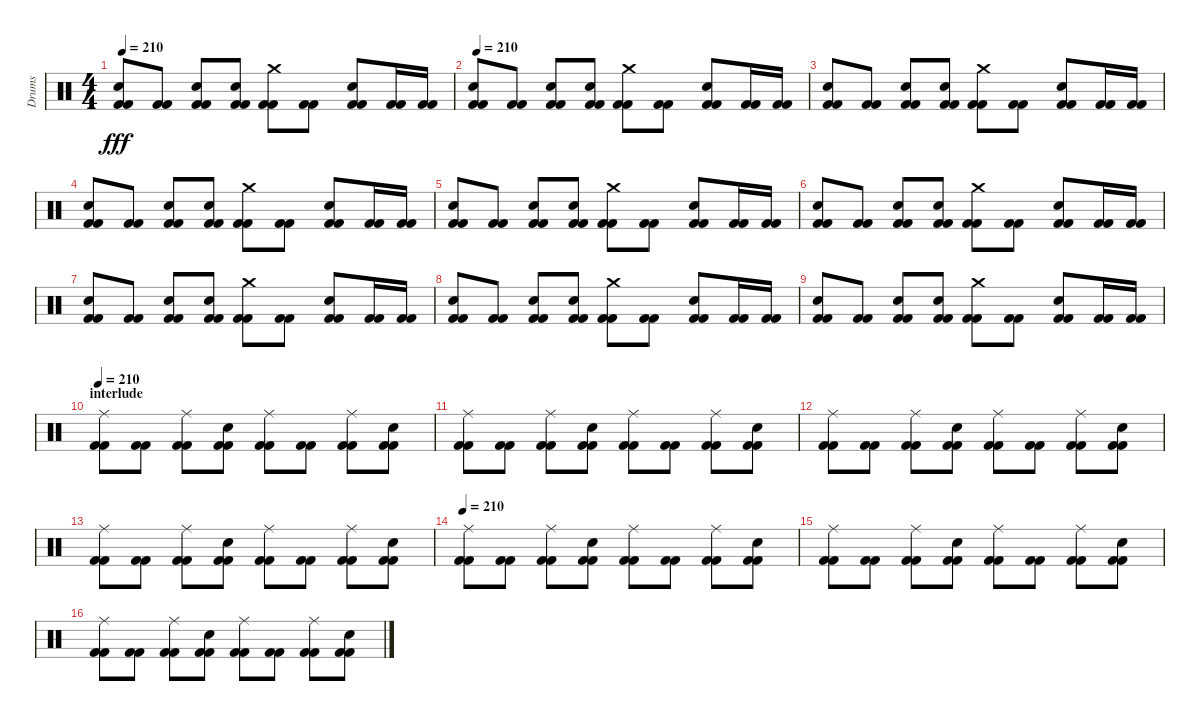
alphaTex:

\track ("Drums" "Drums") {instrument percussion}
\staff {score}
\articulation defaults
\ts (4 4)
\tempo 210
\clef neutral
\ks c
("Electric Snare (hit)" "Kick (hit) 2" "Kick (hit) 2").8{dy fff} ("Kick (hit) 2" "Kick (hit) 2").8 ("Electric Snare (hit)" "Kick (hit) 2" "Kick (hit) 2").8 ("Electric Snare (hit)" "Kick (hit) 2" "Kick (hit) 2").8 ("Crash medium (hit)" "Kick (hit) 2" "Kick (hit) 2").8 ("Kick (hit) 2" "Kick (hit) 2").8 ("Electric Snare (hit)" "Kick (hit) 2" "Kick (hit) 2").8 ("Kick (hit) 2" "Kick (hit) 2").16 ("Kick (hit) 2" "Kick (hit) 2").16 |
\tempo 210
("Electric Snare (hit)" "Kick (hit) 2" "Kick (hit) 2").8 ("Kick (hit) 2" "Kick (hit) 2").8 ("Electric Snare (hit)" "Kick (hit) 2" "Kick (hit) 2").8 ("Electric Snare (hit)" "Kick (hit) 2" "Kick (hit) 2").8 ("Crash medium (hit)" "Kick (hit) 2" "Kick (hit) 2").8 ("Kick (hit) 2" "Kick (hit) 2").8 ("Electric Snare (hit)" "Kick (hit) 2" "Kick (hit) 2").8 ("Kick (hit) 2" "Kick (hit) 2").16 ("Kick (hit) 2" "Kick (hit) 2").16 |
("Electric Snare (hit)" "Kick (hit) 2" "Kick (hit) 2").8 ("Kick (hit) 2" "Kick (hit) 2").8 ("Electric Snare (hit)" "Kick (hit) 2" "Kick (hit) 2").8 ("Electric Snare (hit)" "Kick (hit) 2" "Kick (hit) 2").8 ("Crash medium (hit)" "Kick (hit) 2" "Kick (hit) 2").8 ("Kick (hit) 2" "Kick (hit) 2").8 ("Electric Snare (hit)" "Kick (hit) 2" "Kick (hit) 2").8 ("Kick (hit) 2" "Kick (hit) 2").16 ("Kick (hit) 2" "Kick (hit) 2").16 |
("Electric Snare (hit)" "Kick (hit) 2" "Kick (hit) 2").8 ("Kick (hit) 2" "Kick (hit) 2").8 ("Electric Snare (hit)" "Kick (hit) 2" "Kick (hit) 2").8 ("Electric Snare (hit)" "Kick (hit) 2" "Kick (hit) 2").8 ("Crash medium (hit)" "Kick (hit) 2" "Kick (hit) 2").8 ("Kick (hit) 2" "Kick (hit) 2").8 ("Electric Snare (hit)" "Kick (hit) 2" "Kick (hit) 2").8 ("Kick (hit) 2" "Kick (hit) 2").16 ("Kick (hit) 2" "Kick (hit) 2").16 |
("Electric Snare (hit)" "Kick (hit) 2" "Kick (hit) 2").8 ("Kick (hit) 2" "Kick (hit) 2").8 ("Electric Snare (hit)" "Kick (hit) 2" "Kick (hit) 2").8 ("Electric Snare (hit)" "Kick (hit) 2" "Kick (hit) 2").8 ("Crash medium (hit)" "Kick (hit) 2" "Kick (hit) 2").8 ("Kick (hit) 2" "Kick (hit) 2").8 ("Electric Snare (hit)" "Kick (hit) 2" "Kick (hit) 2").8 ("Kick (hit) 2" "Kick (hit) 2").16 ("Kick (hit) 2" "Kick (hit) 2").16 |
("Electric Snare (hit)" "Kick (hit) 2" "Kick (hit) 2").8 ("Kick (hit) 2" "Kick (hit) 2").8 ("Electric Snare (hit)" "Kick (hit) 2" "Kick (hit) 2").8 ("Electric Snare (hit)" "Kick (hit) 2" "Kick (hit) 2").8 ("Crash medium (hit)" "Kick (hit) 2" "Kick (hit) 2").8 ("Kick (hit) 2" "Kick (hit) 2").8 ("Electric Snare (hit)" "Kick (hit) 2" "Kick (hit) 2").8 ("Kick (hit) 2" "Kick (hit) 2").16 ("Kick (hit) 2" "Kick (hit) 2").16 |
("Electric Snare (hit)" "Kick (hit) 2" "Kick (hit) 2").8 ("Kick (hit) 2" "Kick (hit) 2").8 ("Electric Snare (hit)" "Kick (hit) 2" "Kick (hit) 2").8 ("Electric Snare (hit)" "Kick (hit) 2" "Kick (hit) 2").8 ("Crash medium (hit)" "Kick (hit) 2" "Kick (hit) 2").8 ("Kick (hit) 2" "Kick (hit) 2").8 ("Electric Snare (hit)" "Kick (hit) 2" "Kick (hit) 2").8 ("Kick (hit) 2" "Kick (hit) 2").16 ("Kick (hit) 2" "Kick (hit) 2").16 |
("Electric Snare (hit)" "Kick (hit) 2" "Kick (hit) 2").8 ("Kick (hit) 2" "Kick (hit) 2").8 ("Electric Snare (hit)" "Kick (hit) 2" "Kick (hit) 2").8 ("Electric Snare (hit)" "Kick (hit) 2" "Kick (hit) 2").8 ("Crash medium (hit)" "Kick (hit) 2" "Kick (hit) 2").8 ("Kick (hit) 2" "Kick (hit) 2").8 ("Electric Snare (hit)" "Kick (hit) 2" "Kick (hit) 2").8 ("Kick (hit) 2" "Kick (hit) 2").16 ("Kick (hit) 2" "Kick (hit) 2").16 |
("Electric Snare (hit)" "Kick (hit) 2" "Kick (hit) 2").8 ("Kick (hit) 2" "Kick (hit) 2").8 ("Electric Snare (hit)" "Kick (hit) 2" "Kick (hit) 2").8 ("Electric Snare (hit)" "Kick (hit) 2" "Kick (hit) 2").8 ("Crash medium (hit)" "Kick (hit) 2" "Kick (hit) 2").8 ("Kick (hit) 2" "Kick (hit) 2").8 ("Electric Snare (hit)" "Kick (hit) 2" "Kick (hit) 2").8 ("Kick (hit) 2" "Kick (hit) 2").16 ("Kick (hit) 2" "Kick (hit) 2").16 |
\section ("" "interlude")
\tempo 210
("Ride (middle)" "Kick (hit) 2" "Kick (hit) 2").8 ("Kick (hit) 2" "Kick (hit) 2").8 ("Ride (middle)" "Kick (hit) 2" "Kick (hit) 2").8 ("Electric Snare (hit)" "Kick (hit) 2" "Kick (hit) 2").8 ("Ride (middle)" "Kick (hit) 2" "Kick (hit) 2").8 ("Kick (hit) 2" "Kick (hit) 2").8 ("Ride (middle)" "Kick (hit) 2" "Kick (hit) 2").8 ("Electric Snare (hit)" "Kick (hit) 2" "Kick (hit) 2").8 |
("Ride (middle)" "Kick (hit) 2" "Kick (hit) 2").8 ("Kick (hit) 2" "Kick (hit) 2").8 ("Ride (middle)" "Kick (hit) 2" "Kick (hit) 2").8 ("Electric Snare (hit)" "Kick (hit) 2" "Kick (hit) 2").8 ("Ride (middle)" "Kick (hit) 2" "Kick (hit) 2").8 ("Kick (hit) 2" "Kick (hit) 2").8 ("Ride (middle)" "Kick (hit) 2" "Kick (hit) 2").8 ("Electric Snare (hit)" "Kick (hit) 2" "Kick (hit) 2").8 |
("Ride (middle)" "Kick (hit) 2" "Kick (hit) 2").8 ("Kick (hit) 2" "Kick (hit) 2").8 ("Ride (middle)" "Kick (hit) 2" "Kick (hit) 2").8 ("Electric Snare (hit)" "Kick (hit) 2" "Kick (hit) 2").8 ("Ride (middle)" "Kick (hit) 2" "Kick (hit) 2").8 ("Kick (hit) 2" "Kick (hit) 2").8 ("Ride (middle)" "Kick (hit) 2" "Kick (hit) 2").8 ("Electric Snare (hit)" "Kick (hit) 2" "Kick (hit) 2").8 |
("Ride (middle)" "Kick (hit) 2" "Kick (hit) 2").8 ("Kick (hit) 2" "Kick (hit) 2").8 ("Ride (middle)" "Kick (hit) 2" "Kick (hit) 2").8 ("Electric Snare (hit)" "Kick (hit) 2" "Kick (hit) 2").8 ("Ride (middle)" "Kick (hit) 2" "Kick (hit) 2").8 ("Kick (hit) 2" "Kick (hit) 2").8 ("Ride (middle)" "Kick (hit) 2" "Kick (hit) 2").8 ("Electric Snare (hit)" "Kick (hit) 2" "Kick (hit) 2").8 |
\tempo 210
("Ride (middle)" "Kick (hit) 2" "Kick (hit) 2").8 ("Kick (hit) 2" "Kick (hit) 2").8 ("Ride (middle)" "Kick (hit) 2" "Kick (hit) 2").8 ("Electric Snare (hit)" "Kick (hit) 2" "Kick (hit) 2").8 ("Ride (middle)" "Kick (hit) 2" "Kick (hit) 2").8 ("Kick (hit) 2" "Kick (hit) 2").8 ("Ride (middle)" "Kick (hit) 2" "Kick (hit) 2").8 ("Electric Snare (hit)" "Kick (hit) 2" "Kick (hit) 2").8 |
("Ride (middle)" "Kick (hit) 2" "Kick (hit) 2").8 ("Kick (hit) 2" "Kick (hit) 2").8 ("Ride (middle)" "Kick (hit) 2" "Kick (hit) 2").8 ("Electric Snare (hit)" "Kick (hit) 2" "Kick (hit) 2").8 ("Ride (middle)" "Kick (hit) 2" "Kick (hit) 2").8 ("Kick (hit) 2" "Kick (hit) 2").8 ("Ride (middle)" "Kick (hit) 2" "Kick (hit) 2").8 ("Electric Snare (hit)" "Kick (hit) 2" "Kick (hit) 2").8 |
("Ride (middle)" "Kick (hit) 2" "Kick (hit) 2").8 ("Kick (hit) 2" "Kick (hit) 2").8 ("Ride (middle)" "Kick (hit) 2" "Kick (hit) 2").8 ("Electric Snare (hit)" "Kick (hit) 2" "Kick (hit) 2").8 ("Ride (middle)" "Kick (hit) 2" "Kick (hit) 2").8 ("Kick (hit) 2" "Kick (hit) 2").8 ("Ride (middle)" "Kick (hit) 2" "Kick (hit) 2").8 ("Electric Snare (hit)" "Kick (hit) 2" "Kick (hit) 2").8
